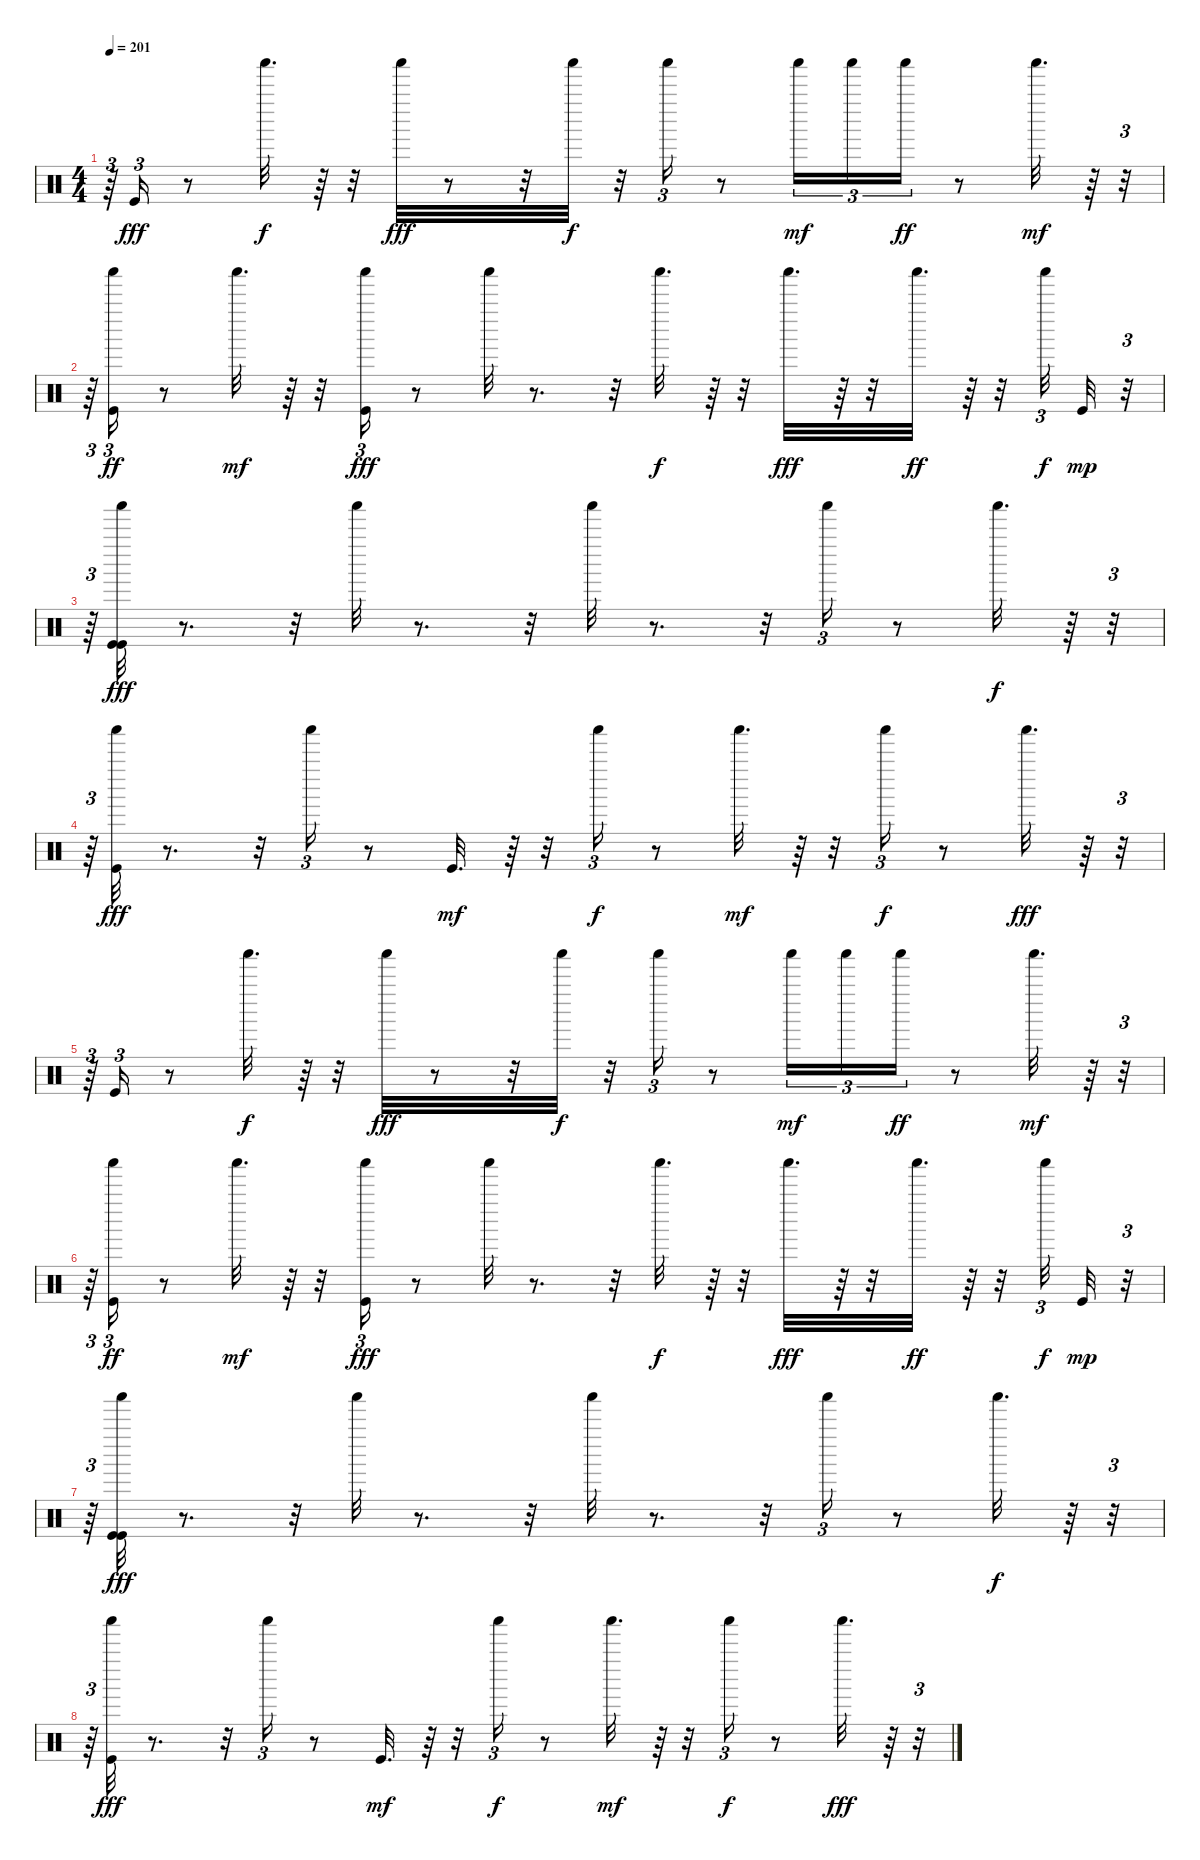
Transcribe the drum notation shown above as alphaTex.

\track "" {instrument percussion}
\staff {score}
\articulation defaults
\ts (4 4)
\tempo 201
\clef neutral
\ks c
r.64{tu (3 2) dy fff} "Kick (hit)".16{tu (3 2)} r.8 "Shaker (hit)".32{d dy f} r.64 r.32 "Shaker (hit)".32{dy fff} r.8 r.32 "Shaker (hit)".32{dy f} r.32 "Shaker (hit)".16{tu (3 2)} r.8 "Shaker (hit)".16{tu (3 2) dy mf} "Shaker (hit)".16{tu (3 2)} "Shaker (hit)".16{tu (3 2) dy ff} r.8 "Shaker (hit)".32{d dy mf} r.64 r.32{tu (3 2)} |
r.64{tu (3 2)} ("Shaker (hit)" "Kick (hit)").16{tu (3 2) dy ff} r.8 "Shaker (hit)".32{d dy mf} r.64 r.32 ("Shaker (hit)" "Kick (hit)").16{tu (3 2) dy fff} r.8 "Shaker (hit)".32 r.8{d} r.32 "Shaker (hit)".32{d dy f} r.64 r.32 "Shaker (hit)".32{d dy fff} r.64 r.32 "Shaker (hit)".32{d dy ff} r.64 r.32 "Shaker (hit)".32{tu (3 2) dy f} "Kick (hit)".32{dy mp} r.32{tu (3 2)} |
r.64{tu (3 2)} ("Shaker (hit)" "Kick (hit)" "Kick (hit)").32{dy fff} r.8{d} r.32 "Shaker (hit)".32 r.8{d} r.32 "Shaker (hit)".32 r.8{d} r.32 "Shaker (hit)".16{tu (3 2)} r.8 "Shaker (hit)".32{d dy f} r.64 r.32{tu (3 2)} |
r.64{tu (3 2)} ("Shaker (hit)" "Kick (hit)").32{dy fff} r.8{d} r.32 "Shaker (hit)".16{tu (3 2)} r.8 "Kick (hit)".32{d dy mf} r.64 r.32 "Shaker (hit)".16{tu (3 2) dy f} r.8 "Shaker (hit)".32{d dy mf} r.64 r.32 "Shaker (hit)".16{tu (3 2) dy f} r.8 "Shaker (hit)".32{d dy fff} r.64 r.32{tu (3 2)} |
r.64{tu (3 2)} "Kick (hit)".16{tu (3 2)} r.8 "Shaker (hit)".32{d dy f} r.64 r.32 "Shaker (hit)".32{dy fff} r.8 r.32 "Shaker (hit)".32{dy f} r.32 "Shaker (hit)".16{tu (3 2)} r.8 "Shaker (hit)".16{tu (3 2) dy mf} "Shaker (hit)".16{tu (3 2)} "Shaker (hit)".16{tu (3 2) dy ff} r.8 "Shaker (hit)".32{d dy mf} r.64 r.32{tu (3 2)} |
r.64{tu (3 2)} ("Shaker (hit)" "Kick (hit)").16{tu (3 2) dy ff} r.8 "Shaker (hit)".32{d dy mf} r.64 r.32 ("Shaker (hit)" "Kick (hit)").16{tu (3 2) dy fff} r.8 "Shaker (hit)".32 r.8{d} r.32 "Shaker (hit)".32{d dy f} r.64 r.32 "Shaker (hit)".32{d dy fff} r.64 r.32 "Shaker (hit)".32{d dy ff} r.64 r.32 "Shaker (hit)".32{tu (3 2) dy f} "Kick (hit)".32{dy mp} r.32{tu (3 2)} |
r.64{tu (3 2)} ("Shaker (hit)" "Kick (hit)" "Kick (hit)").32{dy fff} r.8{d} r.32 "Shaker (hit)".32 r.8{d} r.32 "Shaker (hit)".32 r.8{d} r.32 "Shaker (hit)".16{tu (3 2)} r.8 "Shaker (hit)".32{d dy f} r.64 r.32{tu (3 2)} |
r.64{tu (3 2)} ("Shaker (hit)" "Kick (hit)").32{dy fff} r.8{d} r.32 "Shaker (hit)".16{tu (3 2)} r.8 "Kick (hit)".32{d dy mf} r.64 r.32 "Shaker (hit)".16{tu (3 2) dy f} r.8 "Shaker (hit)".32{d dy mf} r.64 r.32 "Shaker (hit)".16{tu (3 2) dy f} r.8 "Shaker (hit)".32{d dy fff} r.64 r.32{tu (3 2)}
